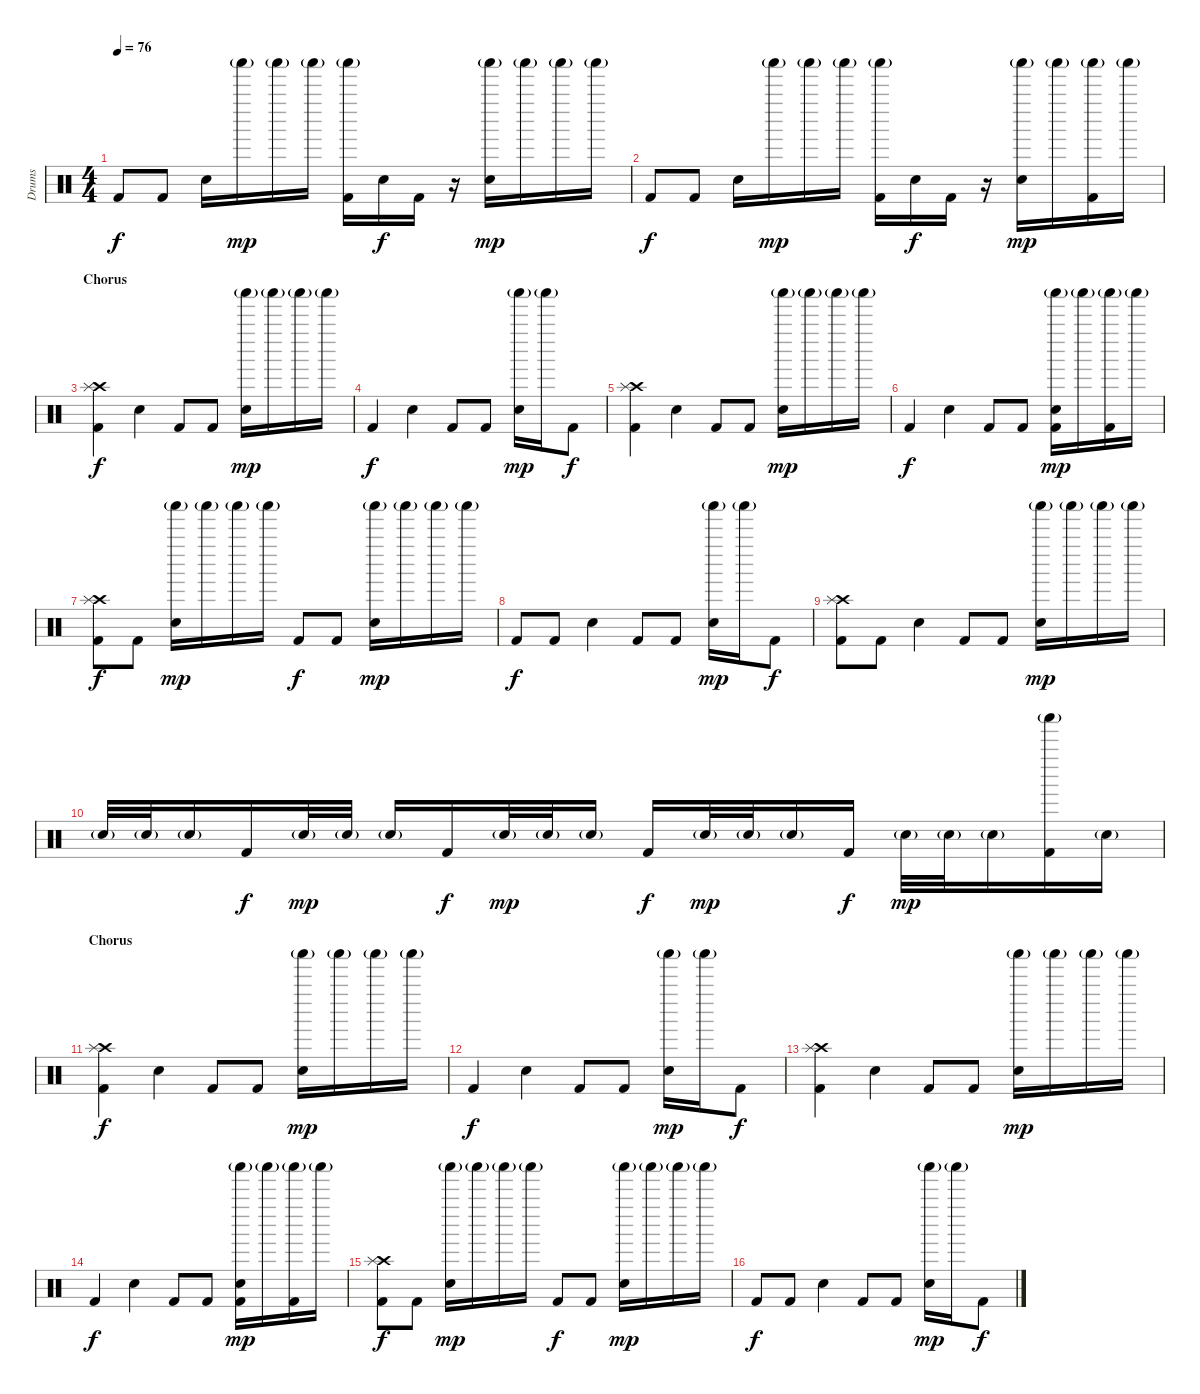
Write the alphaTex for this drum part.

\track ("Drums" "Drums") {instrument percussion}
\staff {score}
\articulation defaults
\ts (4 4)
\tempo 76
\clef neutral
\ks c "Kick (hit) 2".8{dy f} "Kick (hit) 2".8 "Electric Snare (hit)".16 "Shaker (hit)"{g}.16{dy mp} "Shaker (hit)"{g}.16 "Shaker (hit)"{g}.16
("Shaker (hit)"{g} "Kick (hit) 2").16 "Electric Snare (hit)".16{dy f} "Kick (hit) 2".16 r.16 ("Shaker (hit)"{g} "Electric Snare (hit)").16{dy mp} "Shaker (hit)"{g}.16 "Shaker (hit)"{g}.16 "Shaker (hit)"{g}.16 |
"Kick (hit) 2".8{dy f} "Kick (hit) 2".8 "Electric Snare (hit)".16 "Shaker (hit)"{g}.16{dy mp} "Shaker (hit)"{g}.16 "Shaker (hit)"{g}.16 ("Shaker (hit)"{g} "Kick (hit) 2").16 "Electric Snare (hit)".16{dy f} "Kick (hit) 2".16 r.16 ("Shaker (hit)"{g} "Electric Snare (hit)").16{dy mp} "Shaker (hit)"{g}.16 ("Shaker (hit)"{g} "Kick (hit) 2").16 "Shaker (hit)"{g}.16 |
\section ("" "Chorus")
("Crash high (hit)" "Splash (hit)" "Kick (hit) 2").4{dy f} "Electric Snare (hit)".4 "Kick (hit) 2".8 "Kick (hit) 2".8 ("Shaker (hit)"{g} "Electric Snare (hit)").16{dy mp} "Shaker (hit)"{g}.16 "Shaker (hit)"{g}.16 "Shaker (hit)"{g}.16 |
"Kick (hit) 2".4{dy f} "Electric Snare (hit)".4 "Kick (hit) 2".8 "Kick (hit) 2".8 ("Shaker (hit)"{g} "Electric Snare (hit)").16{dy mp} "Shaker (hit)"{g}.16 "Kick (hit) 2".8{dy f} |
("Crash high (hit)" "Splash (hit)" "Kick (hit) 2").4 "Electric Snare (hit)".4 "Kick (hit) 2".8 "Kick (hit) 2".8 ("Shaker (hit)"{g} "Electric Snare (hit)").16{dy mp} "Shaker (hit)"{g}.16 "Shaker (hit)"{g}.16 "Shaker (hit)"{g}.16 |
"Kick (hit) 2".4{dy f} "Electric Snare (hit)".4 "Kick (hit) 2".8 "Kick (hit) 2".8 ("Shaker (hit)"{g} "Electric Snare (hit)" "Kick (hit) 2").16{dy mp} "Shaker (hit)"{g}.16 ("Shaker (hit)"{g} "Kick (hit) 2").16 "Shaker (hit)"{g}.16 |
("Crash high (hit)" "Splash (hit)" "Kick (hit) 2").8{dy f} "Kick (hit) 2".8 ("Shaker (hit)"{g} "Electric Snare (hit)").16{dy mp} "Shaker (hit)"{g}.16 "Shaker (hit)"{g}.16 "Shaker (hit)"{g}.16 "Kick (hit) 2".8{dy f} "Kick (hit) 2".8 ("Shaker (hit)"{g} "Electric Snare (hit)").16{dy mp} "Shaker (hit)"{g}.16 "Shaker (hit)"{g}.16 "Shaker (hit)"{g}.16 |
"Kick (hit) 2".8{dy f} "Kick (hit) 2".8 "Electric Snare (hit)".4 "Kick (hit) 2".8 "Kick (hit) 2".8 ("Shaker (hit)"{g} "Electric Snare (hit)").16{dy mp} "Shaker (hit)"{g}.16 "Kick (hit) 2".8{dy f} |
("Crash high (hit)" "Splash (hit)" "Kick (hit) 2").8 "Kick (hit) 2".8 "Electric Snare (hit)".4 "Kick (hit) 2".8 "Kick (hit) 2".8 ("Shaker (hit)"{g} "Electric Snare (hit)").16{dy mp} "Shaker (hit)"{g}.16 "Shaker (hit)"{g}.16 "Shaker (hit)"{g}.16 |
"Snare (hit) 2"{g}.32 "Snare (hit) 2"{g}.32 "Snare (hit) 2"{g}.16 "Kick (hit) 2".16{dy f} "Snare (hit) 2"{g}.32{dy mp} "Snare (hit) 2"{g}.32 "Snare (hit) 2"{g}.16 "Kick (hit) 2".16{dy f} "Snare (hit) 2"{g}.32{dy mp} "Snare (hit) 2"{g}.32 "Snare (hit) 2"{g}.16 "Kick (hit) 2".16{dy f} "Snare (hit) 2"{g}.32{dy mp} "Snare (hit) 2"{g}.32 "Snare (hit) 2"{g}.16 "Kick (hit) 2".16{dy f} "Snare (hit) 2"{g}.32{dy mp} "Snare (hit) 2"{g}.32 "Snare (hit) 2"{g}.16 ("Shaker (hit)"{g} "Kick (hit) 2").16 "Snare (hit) 2"{g}.16 |
\section ("" "Chorus")
("Crash high (hit)" "Splash (hit)" "Kick (hit) 2").4{dy f} "Electric Snare (hit)".4 "Kick (hit) 2".8 "Kick (hit) 2".8 ("Shaker (hit)"{g} "Electric Snare (hit)").16{dy mp} "Shaker (hit)"{g}.16 "Shaker (hit)"{g}.16 "Shaker (hit)"{g}.16 |
"Kick (hit) 2".4{dy f} "Electric Snare (hit)".4 "Kick (hit) 2".8 "Kick (hit) 2".8 ("Shaker (hit)"{g} "Electric Snare (hit)").16{dy mp} "Shaker (hit)"{g}.16 "Kick (hit) 2".8{dy f} |
("Crash high (hit)" "Splash (hit)" "Kick (hit) 2").4 "Electric Snare (hit)".4 "Kick (hit) 2".8 "Kick (hit) 2".8 ("Shaker (hit)"{g} "Electric Snare (hit)").16{dy mp} "Shaker (hit)"{g}.16 "Shaker (hit)"{g}.16 "Shaker (hit)"{g}.16 |
"Kick (hit) 2".4{dy f} "Electric Snare (hit)".4 "Kick (hit) 2".8 "Kick (hit) 2".8 ("Shaker (hit)"{g} "Electric Snare (hit)" "Kick (hit) 2").16{dy mp} "Shaker (hit)"{g}.16 ("Shaker (hit)"{g} "Kick (hit) 2").16 "Shaker (hit)"{g}.16 |
("Crash high (hit)" "Splash (hit)" "Kick (hit) 2").8{dy f} "Kick (hit) 2".8 ("Shaker (hit)"{g} "Electric Snare (hit)").16{dy mp} "Shaker (hit)"{g}.16 "Shaker (hit)"{g}.16 "Shaker (hit)"{g}.16 "Kick (hit) 2".8{dy f} "Kick (hit) 2".8 ("Shaker (hit)"{g} "Electric Snare (hit)").16{dy mp} "Shaker (hit)"{g}.16 "Shaker (hit)"{g}.16 "Shaker (hit)"{g}.16 |
"Kick (hit) 2".8{dy f} "Kick (hit) 2".8 "Electric Snare (hit)".4 "Kick (hit) 2".8 "Kick (hit) 2".8 ("Shaker (hit)"{g} "Electric Snare (hit)").16{dy mp} "Shaker (hit)"{g}.16 "Kick (hit) 2".8{dy f}
